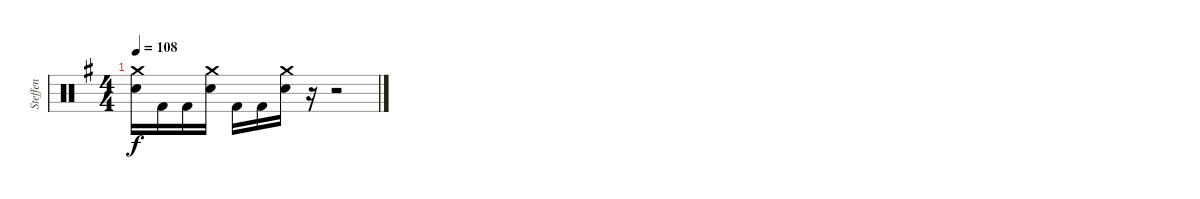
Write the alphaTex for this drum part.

\track ("Steffen" "Steffen") {instrument percussion}
\staff {score}
\articulation defaults
\ts (4 4)
\tempo 108
\clef neutral
\ks g
("Crash medium (hit)" "Electric Snare (hit)").16{dy f} "Kick (hit) 2".16 "Kick (hit) 2".16 ("Crash medium (hit)" "Electric Snare (hit)").16 "Kick (hit) 2".16 "Kick (hit) 2".16 ("Crash medium (hit)" "Electric Snare (hit)").16 r.16 r.2
